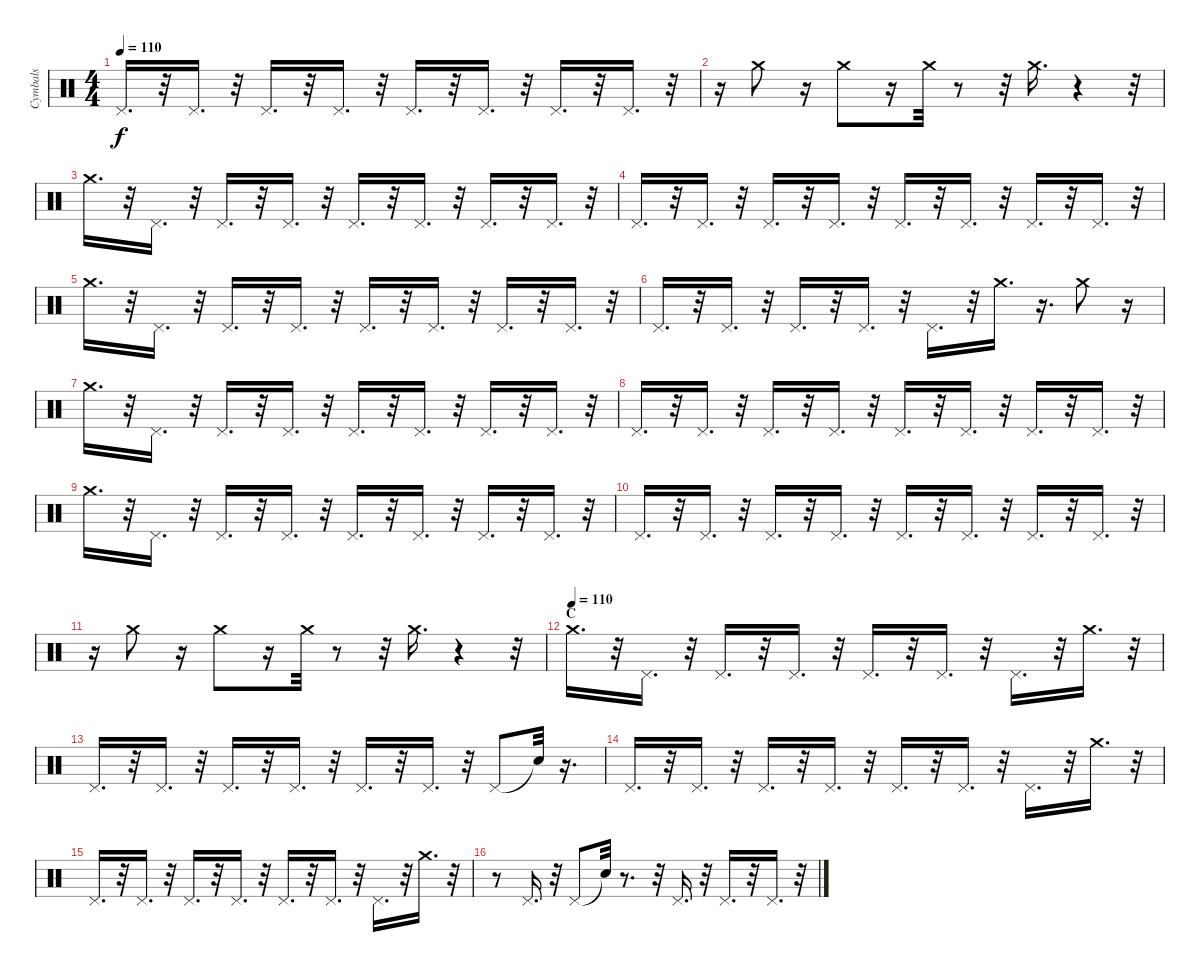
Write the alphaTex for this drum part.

\track ("Cymbals" "Cymbals") {instrument percussion}
\staff {score}
\articulation defaults
\ts (4 4)
\tempo 110
\clef neutral
\ks c "Pedal Hi-Hat (hit)".16{d dy f}
r.32 "Pedal Hi-Hat (hit)".16{d} r.32 "Pedal Hi-Hat (hit)".16{d} r.32 "Pedal Hi-Hat (hit)".16{d} r.32 "Pedal Hi-Hat (hit)".16{d} r.32 "Pedal Hi-Hat (hit)".16{d} r.32 "Pedal Hi-Hat (hit)".16{d} r.32 "Pedal Hi-Hat (hit)".16{d} r.32 |
r.16 "Crash medium (hit)".8 r.16 "Crash medium (hit)".8 r.16 "Crash medium (hit)".32 r.8 r.32 "Crash medium (hit)".16{d} r.4 r.32 |
"Crash medium (hit)".16{d} r.32 "Pedal Hi-Hat (hit)".16{d} r.32 "Pedal Hi-Hat (hit)".16{d} r.32 "Pedal Hi-Hat (hit)".16{d} r.32 "Pedal Hi-Hat (hit)".16{d} r.32 "Pedal Hi-Hat (hit)".16{d} r.32 "Pedal Hi-Hat (hit)".16{d} r.32 "Pedal Hi-Hat (hit)".16{d} r.32 |
"Pedal Hi-Hat (hit)".16{d} r.32 "Pedal Hi-Hat (hit)".16{d} r.32 "Pedal Hi-Hat (hit)".16{d} r.32 "Pedal Hi-Hat (hit)".16{d} r.32 "Pedal Hi-Hat (hit)".16{d} r.32 "Pedal Hi-Hat (hit)".16{d} r.32 "Pedal Hi-Hat (hit)".16{d} r.32 "Pedal Hi-Hat (hit)".16{d} r.32 |
"Crash medium (hit)".16{d} r.32 "Pedal Hi-Hat (hit)".16{d} r.32 "Pedal Hi-Hat (hit)".16{d} r.32 "Pedal Hi-Hat (hit)".16{d} r.32 "Pedal Hi-Hat (hit)".16{d} r.32 "Pedal Hi-Hat (hit)".16{d} r.32 "Pedal Hi-Hat (hit)".16{d} r.32 "Pedal Hi-Hat (hit)".16{d} r.32 |
"Pedal Hi-Hat (hit)".16{d} r.32 "Pedal Hi-Hat (hit)".16{d} r.32 "Pedal Hi-Hat (hit)".16{d} r.32 "Pedal Hi-Hat (hit)".16{d} r.32 "Pedal Hi-Hat (hit)".16{d} r.32 "Crash medium (hit)".16{d} r.16{d} "Crash medium (hit)".8 r.16 |
"Crash medium (hit)".16{d} r.32 "Pedal Hi-Hat (hit)".16{d} r.32 "Pedal Hi-Hat (hit)".16{d} r.32 "Pedal Hi-Hat (hit)".16{d} r.32 "Pedal Hi-Hat (hit)".16{d} r.32 "Pedal Hi-Hat (hit)".16{d} r.32 "Pedal Hi-Hat (hit)".16{d} r.32 "Pedal Hi-Hat (hit)".16{d} r.32 |
"Pedal Hi-Hat (hit)".16{d} r.32 "Pedal Hi-Hat (hit)".16{d} r.32 "Pedal Hi-Hat (hit)".16{d} r.32 "Pedal Hi-Hat (hit)".16{d} r.32 "Pedal Hi-Hat (hit)".16{d} r.32 "Pedal Hi-Hat (hit)".16{d} r.32 "Pedal Hi-Hat (hit)".16{d} r.32 "Pedal Hi-Hat (hit)".16{d} r.32 |
"Crash medium (hit)".16{d} r.32 "Pedal Hi-Hat (hit)".16{d} r.32 "Pedal Hi-Hat (hit)".16{d} r.32 "Pedal Hi-Hat (hit)".16{d} r.32 "Pedal Hi-Hat (hit)".16{d} r.32 "Pedal Hi-Hat (hit)".16{d} r.32 "Pedal Hi-Hat (hit)".16{d} r.32 "Pedal Hi-Hat (hit)".16{d} r.32 |
"Pedal Hi-Hat (hit)".16{d} r.32 "Pedal Hi-Hat (hit)".16{d} r.32 "Pedal Hi-Hat (hit)".16{d} r.32 "Pedal Hi-Hat (hit)".16{d} r.32 "Pedal Hi-Hat (hit)".16{d} r.32 "Pedal Hi-Hat (hit)".16{d} r.32 "Pedal Hi-Hat (hit)".16{d} r.32 "Pedal Hi-Hat (hit)".16{d} r.32 |
r.16 "Crash medium (hit)".8 r.16 "Crash medium (hit)".8 r.16 "Crash medium (hit)".32 r.8 r.32 "Crash medium (hit)".16{d} r.4 r.32 |
\section ("" "C")
\tempo (110)
"Crash medium (hit)".16{d} r.32 "Pedal Hi-Hat (hit)".16{d} r.32 "Pedal Hi-Hat (hit)".16{d} r.32 "Pedal Hi-Hat (hit)".16{d} r.32 "Pedal Hi-Hat (hit)".16{d} r.32 "Pedal Hi-Hat (hit)".16{d} r.32 "Pedal Hi-Hat (hit)".16{d} r.32 "Crash medium (hit)".16{d} r.32 |
"Pedal Hi-Hat (hit)".16{d} r.32 "Pedal Hi-Hat (hit)".16{d} r.32 "Pedal Hi-Hat (hit)".16{d} r.32 "Pedal Hi-Hat (hit)".16{d} r.32 "Pedal Hi-Hat (hit)".16{d} r.32 "Pedal Hi-Hat (hit)".16{d} r.32 "Pedal Hi-Hat (hit)".8 "Snare (hit)"{t}.32 r.16{d} |
"Pedal Hi-Hat (hit)".16{d} r.32 "Pedal Hi-Hat (hit)".16{d} r.32 "Pedal Hi-Hat (hit)".16{d} r.32 "Pedal Hi-Hat (hit)".16{d} r.32 "Pedal Hi-Hat (hit)".16{d} r.32 "Pedal Hi-Hat (hit)".16{d} r.32 "Pedal Hi-Hat (hit)".16{d} r.32 "Crash medium (hit)".16{d} r.32 |
"Pedal Hi-Hat (hit)".16{d} r.32 "Pedal Hi-Hat (hit)".16{d} r.32 "Pedal Hi-Hat (hit)".16{d} r.32 "Pedal Hi-Hat (hit)".16{d} r.32 "Pedal Hi-Hat (hit)".16{d} r.32 "Pedal Hi-Hat (hit)".16{d} r.32 "Pedal Hi-Hat (hit)".16{d} r.32 "Crash medium (hit)".16{d} r.32 |
r.8 "Pedal Hi-Hat (hit)".16{d} r.32 "Pedal Hi-Hat (hit)".8 "Snare (hit)"{t}.32 r.8{d} r.32 "Pedal Hi-Hat (hit)".16{d} r.32 "Pedal Hi-Hat (hit)".16{d} r.32 "Pedal Hi-Hat (hit)".16{d} r.32
